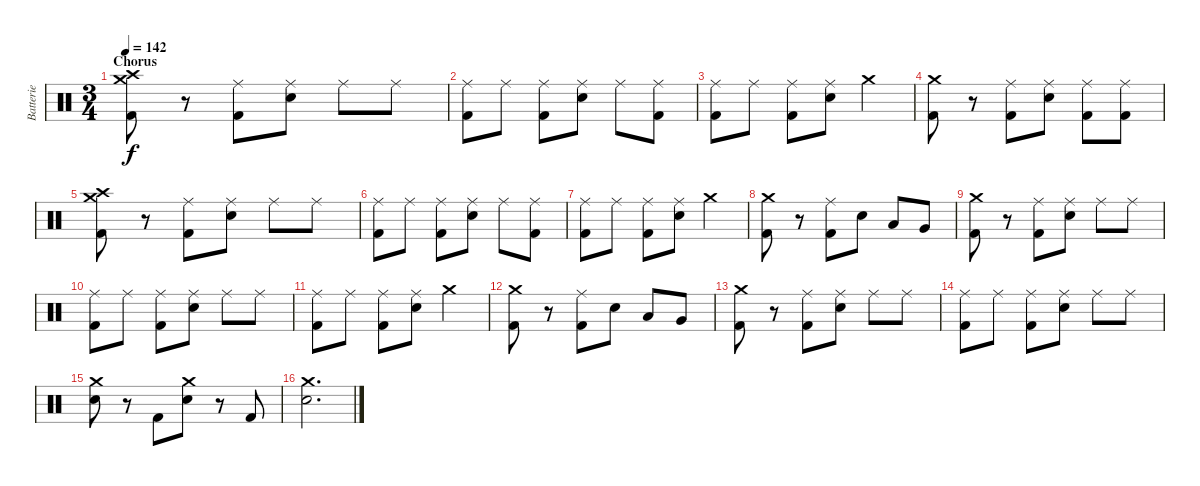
\track ("Batterie" "Batterie") {instrument percussion}
\staff {score}
\articulation defaults
\ts (3 4)
\section ("" "Chorus")
\tempo 142
\clef neutral
\ks c
("Crash medium (hit)" "Crash high (hit)" "Kick (hit) 2").8{dy f} r.8 ("Ride (middle)" "Kick (hit) 2").8 ("Ride (middle)" "Electric Snare (hit)").8 "Ride (middle)".8 "Ride (middle)".8 |
("Ride (middle)" "Kick (hit) 2").8 "Ride (middle)".8 ("Ride (middle)" "Kick (hit) 2").8 ("Ride (middle)" "Electric Snare (hit)").8 "Ride (middle)".8 ("Ride (middle)" "Kick (hit) 2").8 |
("Ride (middle)" "Kick (hit) 2").8 "Ride (middle)".8 ("Ride (middle)" "Kick (hit) 2").8 ("Ride (middle)" "Electric Snare (hit)").8 "Crash medium (hit)".4 |
("Crash medium (hit)" "Kick (hit) 2").8 r.8 ("Ride (middle)" "Kick (hit) 2").8 ("Ride (middle)" "Electric Snare (hit)").8 ("Ride (middle)" "Kick (hit) 2").8 ("Ride (middle)" "Kick (hit) 2").8 |
("Crash medium (hit)" "Crash high (hit)" "Kick (hit) 2").8 r.8 ("Ride (middle)" "Kick (hit) 2").8 ("Ride (middle)" "Electric Snare (hit)").8 "Ride (middle)".8 "Ride (middle)".8 |
("Ride (middle)" "Kick (hit) 2").8 "Ride (middle)".8 ("Ride (middle)" "Kick (hit) 2").8 ("Ride (middle)" "Electric Snare (hit)").8 "Ride (middle)".8 ("Ride (middle)" "Kick (hit) 2").8 |
("Ride (middle)" "Kick (hit) 2").8 "Ride (middle)".8 ("Ride (middle)" "Kick (hit) 2").8 ("Ride (middle)" "Electric Snare (hit)").8 "Crash medium (hit)".4 |
("Crash medium (hit)" "Kick (hit) 2").8 r.8 ("Ride (middle)" "Kick (hit) 2").8 "Electric Snare (hit)".8 "Low Tom (hit)".8 "Very Low Tom (hit)".8 |
("Crash medium (hit)" "Kick (hit) 2").8 r.8 ("Ride (middle)" "Kick (hit) 2").8 ("Ride (middle)" "Electric Snare (hit)").8 "Ride (middle)".8 "Ride (middle)".8 |
("Ride (middle)" "Kick (hit) 2").8 "Ride (middle)".8 ("Ride (middle)" "Kick (hit) 2").8 ("Ride (middle)" "Electric Snare (hit)").8 "Ride (middle)".8 "Ride (middle)".8 |
("Ride (middle)" "Kick (hit) 2").8 "Ride (middle)".8 ("Ride (middle)" "Kick (hit) 2").8 ("Ride (middle)" "Electric Snare (hit)").8 "Crash medium (hit)".4 |
("Crash medium (hit)" "Kick (hit) 2").8 r.8 ("Ride (middle)" "Kick (hit) 2").8 "Electric Snare (hit)".8 "Low Tom (hit)".8 "Very Low Tom (hit)".8 |
("Crash medium (hit)" "Kick (hit) 2").8 r.8 ("Ride (middle)" "Kick (hit) 2").8 ("Ride (middle)" "Electric Snare (hit)").8 "Ride (middle)".8 "Ride (middle)".8 |
("Ride (middle)" "Kick (hit) 2").8 "Ride (middle)".8 ("Ride (middle)" "Kick (hit) 2").8 ("Ride (middle)" "Electric Snare (hit)").8 "Ride (middle)".8 "Ride (middle)".8 |
("Crash medium (hit)" "Electric Snare (hit)").8 r.8 "Kick (hit) 2".8 ("Crash medium (hit)" "Electric Snare (hit)").8 r.8 "Kick (hit) 2".8 |
("Crash medium (hit)" "Electric Snare (hit)").2{d}
